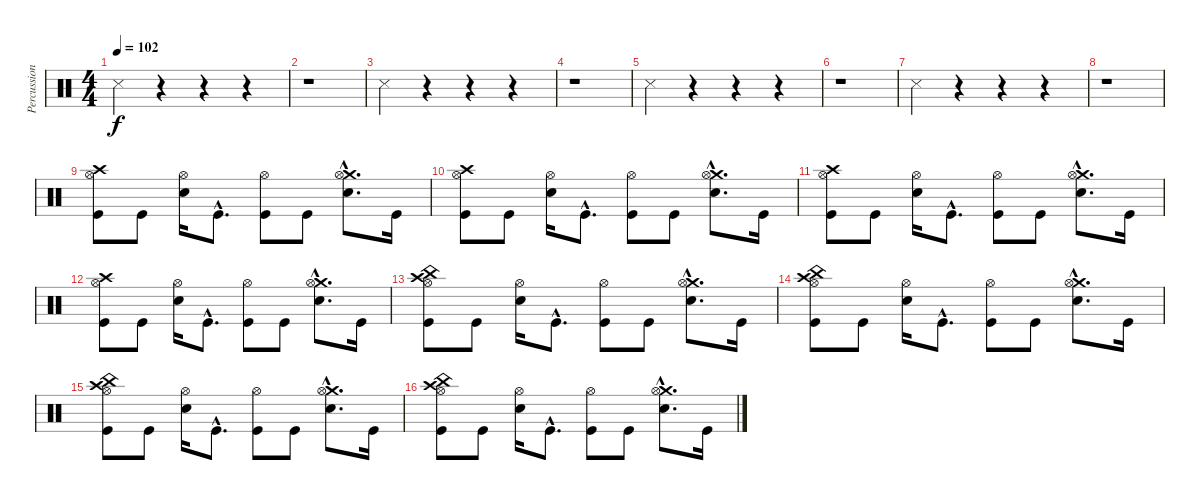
\track ("Percussion (David)" "Percussion") {instrument percussion}
\staff {score}
\articulation defaults
\ts (4 4)
\tempo 102
\clef neutral
\ks c "Metronome (hit)".4{dy f}
r.4 r.4 r.4 |
r.1 |
"Metronome (hit)".4 r.4 r.4 r.4 |
r.1 |
"Metronome (hit)".4 r.4 r.4 r.4 |
r.1 |
"Metronome (hit)".4 r.4 r.4 r.4 |
r.1 |
("Kick (hit)" "Crash high (hit)" "Hi-Hat (open)").8 "Kick (hit)".8 ("Electric Snare (hit)" "Hi-Hat (open)").16 "Kick (hit)"{hac}.8{d} ("Kick (hit)" "Hi-Hat (open)").8 "Kick (hit)".8 ("Electric Snare (hit)"{hac} "Crash medium (hit)"{hac} "Hi-Hat (open)"{hac}).8{d} "Kick (hit)".16 |
("Kick (hit)" "Crash high (hit)" "Hi-Hat (open)").8 "Kick (hit)".8 ("Electric Snare (hit)" "Hi-Hat (open)").16 "Kick (hit)"{hac}.8{d} ("Kick (hit)" "Hi-Hat (open)").8 "Kick (hit)".8 ("Electric Snare (hit)"{hac} "Crash medium (hit)"{hac} "Hi-Hat (open)"{hac}).8{d} "Kick (hit)".16 |
("Kick (hit)" "Crash high (hit)" "Hi-Hat (open)").8 "Kick (hit)".8 ("Electric Snare (hit)" "Hi-Hat (open)").16 "Kick (hit)"{hac}.8{d} ("Kick (hit)" "Hi-Hat (open)").8 "Kick (hit)".8 ("Electric Snare (hit)"{hac} "Crash medium (hit)"{hac} "Hi-Hat (open)"{hac}).8{d} "Kick (hit)".16 |
("Kick (hit)" "Crash high (hit)" "Hi-Hat (open)").8 "Kick (hit)".8 ("Electric Snare (hit)" "Hi-Hat (open)").16 "Kick (hit)"{hac}.8{d} ("Kick (hit)" "Hi-Hat (open)").8 "Kick (hit)".8 ("Electric Snare (hit)"{hac} "Crash medium (hit)"{hac} "Hi-Hat (open)"{hac}).8{d} "Kick (hit)".16 |
("Kick (hit)" "Crash high (hit)" "Hi-Hat (open)" "China (hit)").8 "Kick (hit)".8 ("Electric Snare (hit)" "Hi-Hat (open)").16 "Kick (hit)"{hac}.8{d} ("Kick (hit)" "Hi-Hat (open)").8 "Kick (hit)".8 ("Electric Snare (hit)"{hac} "Crash medium (hit)"{hac} "Hi-Hat (open)"{hac}).8{d} "Kick (hit)".16 |
("Kick (hit)" "Crash high (hit)" "Hi-Hat (open)" "China (hit)").8 "Kick (hit)".8 ("Electric Snare (hit)" "Hi-Hat (open)").16 "Kick (hit)"{hac}.8{d} ("Kick (hit)" "Hi-Hat (open)").8 "Kick (hit)".8 ("Electric Snare (hit)"{hac} "Crash medium (hit)"{hac} "Hi-Hat (open)"{hac}).8{d} "Kick (hit)".16 |
("Kick (hit)" "Crash high (hit)" "Hi-Hat (open)" "China (hit)").8 "Kick (hit)".8 ("Electric Snare (hit)" "Hi-Hat (open)").16 "Kick (hit)"{hac}.8{d} ("Kick (hit)" "Hi-Hat (open)").8 "Kick (hit)".8 ("Electric Snare (hit)"{hac} "Crash medium (hit)"{hac} "Hi-Hat (open)"{hac}).8{d} "Kick (hit)".16 |
("Kick (hit)" "Crash high (hit)" "Hi-Hat (open)" "China (hit)").8 "Kick (hit)".8 ("Electric Snare (hit)" "Hi-Hat (open)").16 "Kick (hit)"{hac}.8{d} ("Kick (hit)" "Hi-Hat (open)").8 "Kick (hit)".8 ("Electric Snare (hit)"{hac} "Crash medium (hit)"{hac} "Hi-Hat (open)"{hac}).8{d} "Kick (hit)".16
